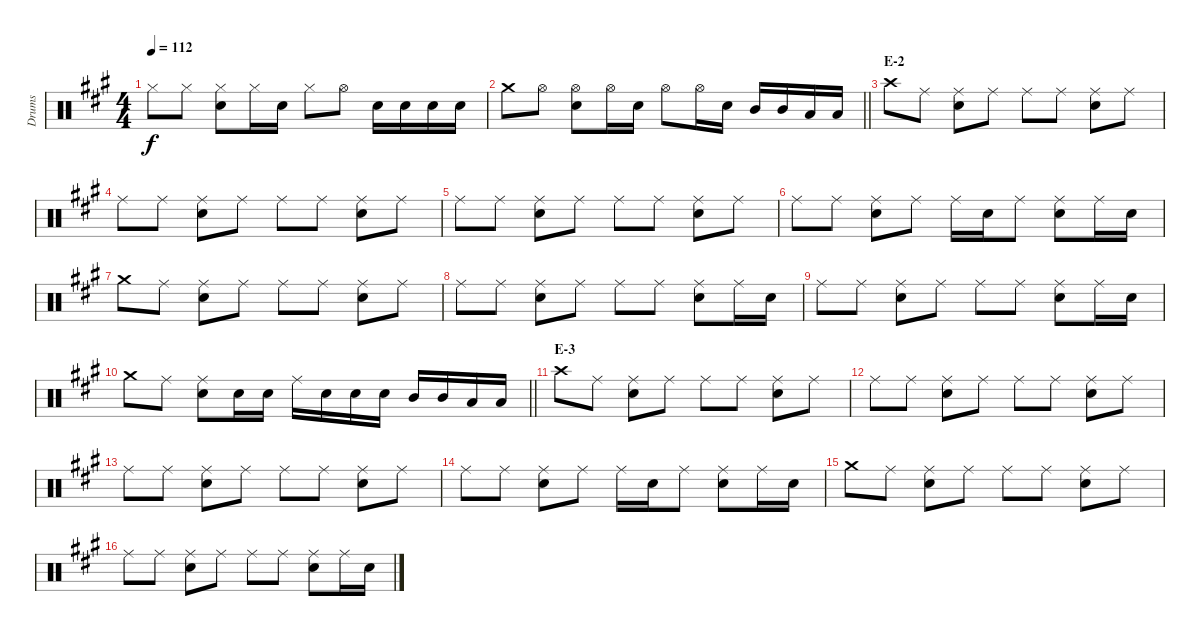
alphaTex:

\track ("Drums" "Drums") {instrument percussion}
\staff {score}
\articulation defaults
\ts (4 4)
\tempo 112
\clef neutral
\ks a "Hi-Hat (closed)".8{dy f} "Hi-Hat (closed)".8
("Hi-Hat (closed)" "Snare (hit) 2").8 "Hi-Hat (closed)".16 "Snare (hit) 2".16 "Hi-Hat (closed)".8 "Hi-Hat (open)".8 "Snare (hit) 2".16 "Snare (hit) 2".16 "Snare (hit) 2".16 "Snare (hit) 2".16 |
\barLineRight lightlight "Crash medium (hit)".8 "Hi-Hat (open)".8
("Hi-Hat (open)" "Snare (hit) 2").8 "Hi-Hat (open)".16 "Snare (hit) 2".16 "Hi-Hat (open)".8 "Hi-Hat (open)".16 "Snare (hit) 2".16 "Mid Tom (hit)".16 "Mid Tom (hit)".16 "Low Tom (hit)".16 "Low Tom (hit)".16 |
\section ("" "E-2")
"Crash high (hit)".8 "Ride (middle)".8 ("Ride (middle)" "Snare (hit) 2").8 "Ride (middle)".8 "Ride (middle)".8 "Ride (middle)".8 ("Ride (middle)" "Snare (hit) 2").8 "Ride (middle)".8 |
"Ride (middle)".8 "Ride (middle)".8 ("Ride (middle)" "Snare (hit) 2").8 "Ride (middle)".8 "Ride (middle)".8 "Ride (middle)".8 ("Ride (middle)" "Snare (hit) 2").8 "Ride (middle)".8 |
"Ride (middle)".8 "Ride (middle)".8 ("Ride (middle)" "Snare (hit) 2").8 "Ride (middle)".8 "Ride (middle)".8 "Ride (middle)".8 ("Ride (middle)" "Snare (hit) 2").8 "Ride (middle)".8 |
"Ride (middle)".8 "Ride (middle)".8 ("Ride (middle)" "Snare (hit) 2").8 "Ride (middle)".8 "Ride (middle)".16 "Snare (hit) 2".16 "Ride (middle)".8 ("Ride (middle)" "Snare (hit) 2").8 "Ride (middle)".16 "Snare (hit) 2".16 |
"Crash medium (hit)".8 "Ride (middle)".8 ("Ride (middle)" "Snare (hit) 2").8 "Ride (middle)".8 "Ride (middle)".8 "Ride (middle)".8 ("Ride (middle)" "Snare (hit) 2").8 "Ride (middle)".8 |
"Ride (middle)".8 "Ride (middle)".8 ("Ride (middle)" "Snare (hit) 2").8 "Ride (middle)".8 "Ride (middle)".8 "Ride (middle)".8 ("Ride (middle)" "Snare (hit) 2").8 "Ride (middle)".16 "Snare (hit) 2".16 |
"Ride (middle)".8 "Ride (middle)".8 ("Ride (middle)" "Snare (hit) 2").8 "Ride (middle)".8 "Ride (middle)".8 "Ride (middle)".8 ("Ride (middle)" "Snare (hit) 2").8 "Ride (middle)".16 "Snare (hit) 2".16 |
\barLineRight lightlight "Crash medium (hit)".8 "Ride (middle)".8
("Ride (middle)" "Snare (hit) 2").8 "Snare (hit) 2".16 "Snare (hit) 2".16 "Ride (middle)".16 "Snare (hit) 2".16 "Snare (hit) 2".16 "Snare (hit) 2".16 "Mid Tom (hit)".16 "Mid Tom (hit)".16 "Low Tom (hit)".16 "Low Tom (hit)".16 |
\section ("" "E-3")
"Crash high (hit)".8 "Ride (middle)".8 ("Ride (middle)" "Snare (hit) 2").8 "Ride (middle)".8 "Ride (middle)".8 "Ride (middle)".8 ("Ride (middle)" "Snare (hit) 2").8 "Ride (middle)".8 |
"Ride (middle)".8 "Ride (middle)".8 ("Ride (middle)" "Snare (hit) 2").8 "Ride (middle)".8 "Ride (middle)".8 "Ride (middle)".8 ("Ride (middle)" "Snare (hit) 2").8 "Ride (middle)".8 |
"Ride (middle)".8 "Ride (middle)".8 ("Ride (middle)" "Snare (hit) 2").8 "Ride (middle)".8 "Ride (middle)".8 "Ride (middle)".8 ("Ride (middle)" "Snare (hit) 2").8 "Ride (middle)".8 |
"Ride (middle)".8 "Ride (middle)".8 ("Ride (middle)" "Snare (hit) 2").8 "Ride (middle)".8 "Ride (middle)".16 "Snare (hit) 2".16 "Ride (middle)".8 ("Ride (middle)" "Snare (hit) 2").8 "Ride (middle)".16 "Snare (hit) 2".16 |
"Crash medium (hit)".8 "Ride (middle)".8 ("Ride (middle)" "Snare (hit) 2").8 "Ride (middle)".8 "Ride (middle)".8 "Ride (middle)".8 ("Ride (middle)" "Snare (hit) 2").8 "Ride (middle)".8 |
"Ride (middle)".8 "Ride (middle)".8 ("Ride (middle)" "Snare (hit) 2").8 "Ride (middle)".8 "Ride (middle)".8 "Ride (middle)".8 ("Ride (middle)" "Snare (hit) 2").8 "Ride (middle)".16 "Snare (hit) 2".16
